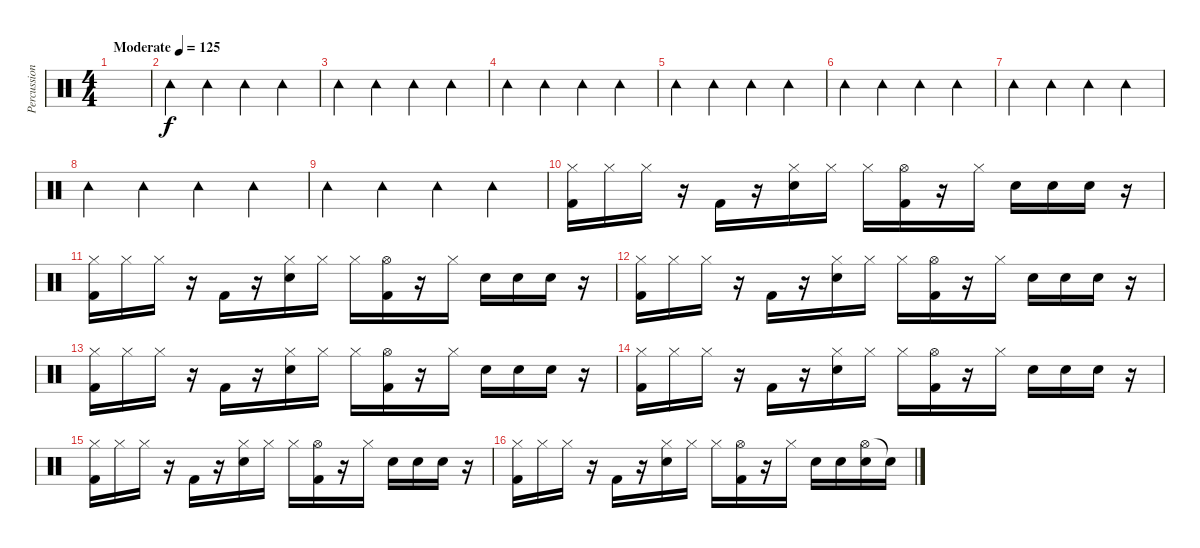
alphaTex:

\track ("Percussion" "Percussion") {instrument percussion}
\staff {score}
\articulation defaults
\ts (4 4)
\tempo (125 "Moderate")
\clef neutral
\ks c
|
"Tambourine (hit)".4 "Tambourine (hit)".4 "Tambourine (hit)".4 "Tambourine (hit)".4 |
"Tambourine (hit)".4 "Tambourine (hit)".4 "Tambourine (hit)".4 "Tambourine (hit)".4 |
"Tambourine (hit)".4 "Tambourine (hit)".4 "Tambourine (hit)".4 "Tambourine (hit)".4 |
"Tambourine (hit)".4 "Tambourine (hit)".4 "Tambourine (hit)".4 "Tambourine (hit)".4 |
"Tambourine (hit)".4 "Tambourine (hit)".4 "Tambourine (hit)".4 "Tambourine (hit)".4 |
"Tambourine (hit)".4 "Tambourine (hit)".4 "Tambourine (hit)".4 "Tambourine (hit)".4 |
"Tambourine (hit)".4 "Tambourine (hit)".4 "Tambourine (hit)".4 "Tambourine (hit)".4 |
"Tambourine (hit)".4 "Tambourine (hit)".4 "Tambourine (hit)".4 "Tambourine (hit)".4 |
("Hi-Hat (closed)" "Kick (hit) 2").16 "Hi-Hat (closed)".16 "Hi-Hat (closed)".16 r.16 "Kick (hit) 2".16 r.16 ("Hi-Hat (closed)" "Electric Snare (hit)").16 "Hi-Hat (closed)".16 "Hi-Hat (closed)".16 ("Hi-Hat (open)" "Kick (hit) 2").16 r.16 "Hi-Hat (closed)".16 "Electric Snare (hit)".16 "Electric Snare (hit)".16 "Electric Snare (hit)".16 r.16 |
("Hi-Hat (closed)" "Kick (hit) 2").16 "Hi-Hat (closed)".16 "Hi-Hat (closed)".16 r.16 "Kick (hit) 2".16 r.16 ("Hi-Hat (closed)" "Electric Snare (hit)").16 "Hi-Hat (closed)".16 "Hi-Hat (closed)".16 ("Hi-Hat (open)" "Kick (hit) 2").16 r.16 "Hi-Hat (closed)".16 "Electric Snare (hit)".16 "Electric Snare (hit)".16 "Electric Snare (hit)".16 r.16 |
("Hi-Hat (closed)" "Kick (hit) 2").16 "Hi-Hat (closed)".16 "Hi-Hat (closed)".16 r.16 "Kick (hit) 2".16 r.16 ("Hi-Hat (closed)" "Electric Snare (hit)").16 "Hi-Hat (closed)".16 "Hi-Hat (closed)".16 ("Hi-Hat (open)" "Kick (hit) 2").16 r.16 "Hi-Hat (closed)".16 "Electric Snare (hit)".16 "Electric Snare (hit)".16 "Electric Snare (hit)".16 r.16 |
("Hi-Hat (closed)" "Kick (hit) 2").16 "Hi-Hat (closed)".16 "Hi-Hat (closed)".16 r.16 "Kick (hit) 2".16 r.16 ("Hi-Hat (closed)" "Electric Snare (hit)").16 "Hi-Hat (closed)".16 "Hi-Hat (closed)".16 ("Hi-Hat (open)" "Kick (hit) 2").16 r.16 "Hi-Hat (closed)".16 "Electric Snare (hit)".16 "Electric Snare (hit)".16 "Electric Snare (hit)".16 r.16 |
("Hi-Hat (closed)" "Kick (hit) 2").16 "Hi-Hat (closed)".16 "Hi-Hat (closed)".16 r.16 "Kick (hit) 2".16 r.16 ("Hi-Hat (closed)" "Electric Snare (hit)").16 "Hi-Hat (closed)".16 "Hi-Hat (closed)".16 ("Hi-Hat (open)" "Kick (hit) 2").16 r.16 "Hi-Hat (closed)".16 "Electric Snare (hit)".16 "Electric Snare (hit)".16 "Electric Snare (hit)".16 r.16 |
("Hi-Hat (closed)" "Kick (hit) 2").16 "Hi-Hat (closed)".16 "Hi-Hat (closed)".16 r.16 "Kick (hit) 2".16 r.16 ("Hi-Hat (closed)" "Electric Snare (hit)").16 "Hi-Hat (closed)".16 "Hi-Hat (closed)".16 ("Hi-Hat (open)" "Kick (hit) 2").16 r.16 "Hi-Hat (closed)".16 "Electric Snare (hit)".16 "Electric Snare (hit)".16 "Electric Snare (hit)".16 r.16 |
("Hi-Hat (closed)" "Kick (hit) 2").16 "Hi-Hat (closed)".16 "Hi-Hat (closed)".16 r.16 "Kick (hit) 2".16 r.16 ("Hi-Hat (closed)" "Electric Snare (hit)").16 "Hi-Hat (closed)".16 "Hi-Hat (closed)".16 ("Hi-Hat (open)" "Kick (hit) 2").16 r.16 "Hi-Hat (closed)".16 "Electric Snare (hit)".16 "Electric Snare (hit)".16 ("Hi-Hat (open)" "Electric Snare (hit)").16 "Snare (hit)"{t}.16
